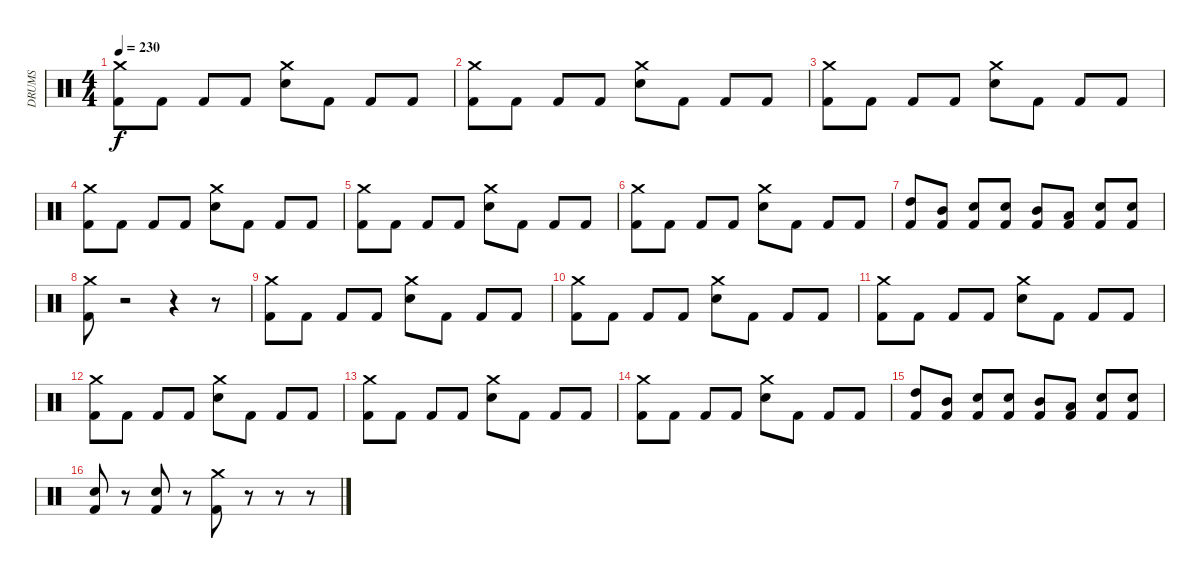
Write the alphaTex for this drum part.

\track ("DRUMS" "DRUMS") {instrument percussion}
\staff {score}
\articulation defaults
\ts (4 4)
\tempo 230
\clef neutral
\ks c
("Crash medium (hit)" "Kick (hit) 2").8{dy f} "Kick (hit) 2".8 "Kick (hit) 2".8 "Kick (hit) 2".8 ("Crash medium (hit)" "Snare (hit) 2").8 "Kick (hit) 2".8 "Kick (hit) 2".8 "Kick (hit) 2".8 |
("Crash medium (hit)" "Kick (hit) 2").8 "Kick (hit) 2".8 "Kick (hit) 2".8 "Kick (hit) 2".8 ("Crash medium (hit)" "Snare (hit) 2").8 "Kick (hit) 2".8 "Kick (hit) 2".8 "Kick (hit) 2".8 |
("Crash medium (hit)" "Kick (hit) 2").8 "Kick (hit) 2".8 "Kick (hit) 2".8 "Kick (hit) 2".8 ("Crash medium (hit)" "Snare (hit) 2").8 "Kick (hit) 2".8 "Kick (hit) 2".8 "Kick (hit) 2".8 |
("Crash medium (hit)" "Kick (hit) 2").8 "Kick (hit) 2".8 "Kick (hit) 2".8 "Kick (hit) 2".8 ("Crash medium (hit)" "Snare (hit) 2").8 "Kick (hit) 2".8 "Kick (hit) 2".8 "Kick (hit) 2".8 |
("Crash medium (hit)" "Kick (hit) 2").8 "Kick (hit) 2".8 "Kick (hit) 2".8 "Kick (hit) 2".8 ("Crash medium (hit)" "Snare (hit) 2").8 "Kick (hit) 2".8 "Kick (hit) 2".8 "Kick (hit) 2".8 |
("Crash medium (hit)" "Kick (hit) 2").8 "Kick (hit) 2".8 "Kick (hit) 2".8 "Kick (hit) 2".8 ("Crash medium (hit)" "Snare (hit) 2").8 "Kick (hit) 2".8 "Kick (hit) 2".8 "Kick (hit) 2".8 |
("High Tom (hit)" "Kick (hit) 2").8 ("Mid Tom (hit)" "Kick (hit) 2").8 ("Snare (hit) 2" "Kick (hit) 2").8 ("Snare (hit) 2" "Kick (hit) 2").8 ("Mid Tom (hit)" "Kick (hit) 2").8 ("Low Tom (hit)" "Kick (hit) 2").8 ("Snare (hit) 2" "Kick (hit) 2").8 ("Snare (hit) 2" "Kick (hit) 2").8 |
("Crash medium (hit)" "Kick (hit) 2").8 r.2 r.4 r.8 |
("Crash medium (hit)" "Kick (hit) 2").8 "Kick (hit) 2".8 "Kick (hit) 2".8 "Kick (hit) 2".8 ("Crash medium (hit)" "Snare (hit) 2").8 "Kick (hit) 2".8 "Kick (hit) 2".8 "Kick (hit) 2".8 |
("Crash medium (hit)" "Kick (hit) 2").8 "Kick (hit) 2".8 "Kick (hit) 2".8 "Kick (hit) 2".8 ("Crash medium (hit)" "Snare (hit) 2").8 "Kick (hit) 2".8 "Kick (hit) 2".8 "Kick (hit) 2".8 |
("Crash medium (hit)" "Kick (hit) 2").8 "Kick (hit) 2".8 "Kick (hit) 2".8 "Kick (hit) 2".8 ("Crash medium (hit)" "Snare (hit) 2").8 "Kick (hit) 2".8 "Kick (hit) 2".8 "Kick (hit) 2".8 |
("Crash medium (hit)" "Kick (hit) 2").8 "Kick (hit) 2".8 "Kick (hit) 2".8 "Kick (hit) 2".8 ("Crash medium (hit)" "Snare (hit) 2").8 "Kick (hit) 2".8 "Kick (hit) 2".8 "Kick (hit) 2".8 |
("Crash medium (hit)" "Kick (hit) 2").8 "Kick (hit) 2".8 "Kick (hit) 2".8 "Kick (hit) 2".8 ("Crash medium (hit)" "Snare (hit) 2").8 "Kick (hit) 2".8 "Kick (hit) 2".8 "Kick (hit) 2".8 |
("Crash medium (hit)" "Kick (hit) 2").8 "Kick (hit) 2".8 "Kick (hit) 2".8 "Kick (hit) 2".8 ("Crash medium (hit)" "Snare (hit) 2").8 "Kick (hit) 2".8 "Kick (hit) 2".8 "Kick (hit) 2".8 |
("High Tom (hit)" "Kick (hit) 2").8 ("Mid Tom (hit)" "Kick (hit) 2").8 ("Snare (hit) 2" "Kick (hit) 2").8 ("Snare (hit) 2" "Kick (hit) 2").8 ("Mid Tom (hit)" "Kick (hit) 2").8 ("Low Tom (hit)" "Kick (hit) 2").8 ("Snare (hit) 2" "Kick (hit) 2").8 ("Snare (hit) 2" "Kick (hit) 2").8 |
("Snare (hit) 2" "Kick (hit) 2").8 r.8 ("Snare (hit) 2" "Kick (hit) 2").8 r.8 ("Crash medium (hit)" "Kick (hit) 2").8 r.8 r.8 r.8
